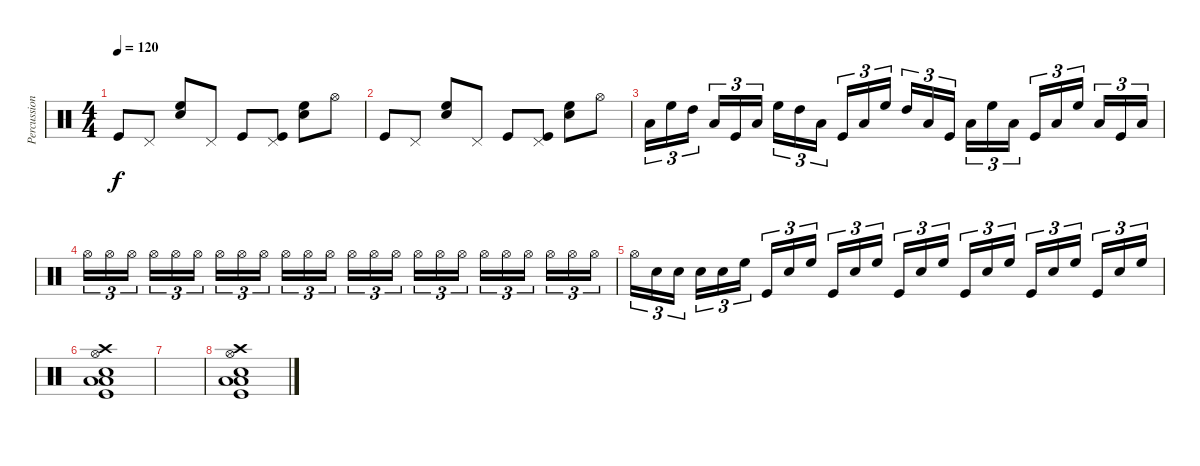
\track ("Percussion" "Percussion") {instrument percussion}
\staff {score}
\articulation defaults
\ts (4 4)
\tempo 120
\clef neutral
\ks c "Kick (hit)".8{dy f} "Pedal Hi-Hat (hit)".8
("Electric Snare (hit)" "High Floor Tom (hit)").8 "Pedal Hi-Hat (hit)".8 "Kick (hit)".8 ("Pedal Hi-Hat (hit)" "Kick (hit)").8 ("Electric Snare (hit)" "High Floor Tom (hit)").8 "Hi-Hat (open)".8 |
"Kick (hit)".8 "Pedal Hi-Hat (hit)".8 ("Electric Snare (hit)" "High Floor Tom (hit)").8 "Pedal Hi-Hat (hit)".8 "Kick (hit)".8 ("Pedal Hi-Hat (hit)" "Kick (hit)").8 ("Electric Snare (hit)" "High Floor Tom (hit)").8 "Hi-Hat (open)".8 |
"Low Floor Tom (hit)".16{tu (3 2)} "High Floor Tom (hit)".16{tu (3 2)} "High Tom (hit)".16{tu (3 2)} "Low Tom (hit)".16{tu (3 2)} "Kick (hit)".16{tu (3 2)} "Low Floor Tom (hit)".16{tu (3 2)} "High Floor Tom (hit)".16{tu (3 2)} "High Tom (hit)".16{tu (3 2)} "Low Tom (hit)".16{tu (3 2)} "Kick (hit)".16{tu (3 2)} "Low Floor Tom (hit)".16{tu (3 2)} "High Floor Tom (hit)".16{tu (3 2)} "High Tom (hit)".16{tu (3 2)} "Low Tom (hit)".16{tu (3 2)} "Kick (hit)".16{tu (3 2)} "Low Floor Tom (hit)".16{tu (3 2)} "High Floor Tom (hit)".16{tu (3 2)} "Low Tom (hit)".16{tu (3 2)} "Kick (hit)".16{tu (3 2)} "Low Floor Tom (hit)".16{tu (3 2)} "High Floor Tom (hit)".16{tu (3 2)} "Low Tom (hit)".16{tu (3 2)} "Kick (hit)".16{tu (3 2)} "Low Floor Tom (hit)".16{tu (3 2)} |
"Hi-Hat (open)".16{tu (3 2)} "Hi-Hat (open)".16{tu (3 2)} "Hi-Hat (open)".16{tu (3 2)} "Hi-Hat (open)".16{tu (3 2)} "Hi-Hat (open)".16{tu (3 2)} "Hi-Hat (open)".16{tu (3 2)} "Hi-Hat (open)".16{tu (3 2)} "Hi-Hat (open)".16{tu (3 2)} "Hi-Hat (open)".16{tu (3 2)} "Hi-Hat (open)".16{tu (3 2)} "Hi-Hat (open)".16{tu (3 2)} "Hi-Hat (open)".16{tu (3 2)} "Hi-Hat (open)".16{tu (3 2)} "Hi-Hat (open)".16{tu (3 2)} "Hi-Hat (open)".16{tu (3 2)} "Hi-Hat (open)".16{tu (3 2)} "Hi-Hat (open)".16{tu (3 2)} "Hi-Hat (open)".16{tu (3 2)} "Hi-Hat (open)".16{tu (3 2)} "Hi-Hat (open)".16{tu (3 2)} "Hi-Hat (open)".16{tu (3 2)} "Hi-Hat (open)".16{tu (3 2)} "Hi-Hat (open)".16{tu (3 2)} "Hi-Hat (open)".16{tu (3 2)} |
"Hi-Hat (open)".16{tu (3 2)} "Snare (hit) 2".16{tu (3 2)} "Snare (hit) 2".16{tu (3 2)} "Snare (hit) 2".16{tu (3 2)} "Snare (hit) 2".16{tu (3 2)} "High Floor Tom (hit)".16{tu (3 2)} "Kick (hit)".16{tu (3 2)} "Snare (hit) 2".16{tu (3 2)} "High Floor Tom (hit)".16{tu (3 2)} "Kick (hit)".16{tu (3 2)} "Snare (hit) 2".16{tu (3 2)} "High Floor Tom (hit)".16{tu (3 2)} "Kick (hit)".16{tu (3 2)} "Snare (hit) 2".16{tu (3 2)} "High Floor Tom (hit)".16{tu (3 2)} "Kick (hit)".16{tu (3 2)} "Snare (hit) 2".16{tu (3 2)} "High Floor Tom (hit)".16{tu (3 2)} "Kick (hit)".16{tu (3 2)} "Snare (hit) 2".16{tu (3 2)} "High Floor Tom (hit)".16{tu (3 2)} "Kick (hit)".16{tu (3 2)} "Snare (hit) 2".16{tu (3 2)} "High Floor Tom (hit)".16{tu (3 2)} |
("Low Tom (hit)" "Crash high (hit)" "Snare (hit) 2" "Hi-Hat (open)" "Kick (hit)" "Low Floor Tom (hit)").1 |
|
("Low Tom (hit)" "Crash high (hit)" "Snare (hit) 2" "Hi-Hat (open)" "Kick (hit)" "Low Floor Tom (hit)").1
